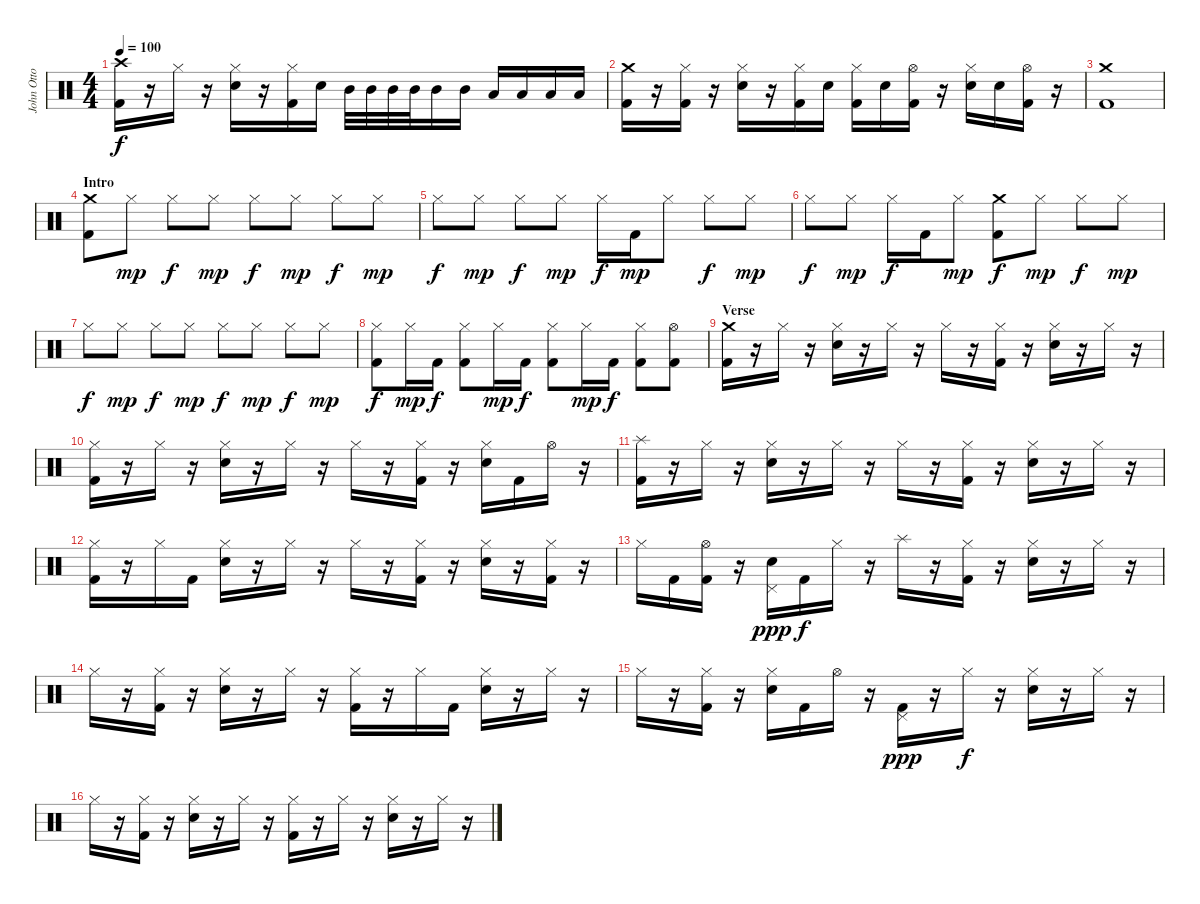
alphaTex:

\track ("John Otto - Drums" "John Otto ") {instrument percussion}
\staff {score}
\articulation defaults
\ts (4 4)
\tempo 100
\clef neutral
\ks c
("Crash high (hit)" "Kick (hit) 2").16{dy f} r.16 "Hi-Hat (closed)".16 r.16 ("Hi-Hat (closed)" "Electric Snare (hit)").16 r.16 ("Hi-Hat (closed)" "Kick (hit) 2").16 "Electric Snare (hit)".16 "Mid Tom (hit)".32 "Mid Tom (hit)".32 "Mid Tom (hit)".32 "Mid Tom (hit)".32 "Mid Tom (hit)".16 "Mid Tom (hit)".16 "Low Tom (hit)".16 "Low Tom (hit)".16 "Low Tom (hit)".16 "Low Tom (hit)".16 |
("Crash medium (hit)" "Kick (hit) 2").16 r.16 ("Hi-Hat (closed)" "Kick (hit) 2").16 r.16 ("Hi-Hat (closed)" "Electric Snare (hit)").16 r.16 ("Hi-Hat (closed)" "Kick (hit) 2").16 "Electric Snare (hit)".16 ("Hi-Hat (closed)" "Kick (hit) 2").16 "Electric Snare (hit)".16 ("Hi-Hat (open)" "Kick (hit) 2").16 r.16 ("Hi-Hat (closed)" "Electric Snare (hit)").16 "Electric Snare (hit)".16 ("Hi-Hat (open)" "Kick (hit) 2").16 r.16 |
("Crash medium (hit)" "Kick (hit) 2").1 |
\section ("" "Intro")
("Crash medium (hit)" "Kick (hit) 2").8 "Hi-Hat (closed)".8{dy mp} "Hi-Hat (closed)".8{dy f} "Hi-Hat (closed)".8{dy mp} "Hi-Hat (closed)".8{dy f} "Hi-Hat (closed)".8{dy mp} "Hi-Hat (closed)".8{dy f} "Hi-Hat (closed)".8{dy mp} |
"Hi-Hat (closed)".8{dy f} "Hi-Hat (closed)".8{dy mp} "Hi-Hat (closed)".8{dy f} "Hi-Hat (closed)".8{dy mp} "Hi-Hat (closed)".16{dy f} "Kick (hit) 2".16{dy mp} "Hi-Hat (closed)".8 "Hi-Hat (closed)".8{dy f} "Hi-Hat (closed)".8{dy mp} |
"Hi-Hat (closed)".8{dy f} "Hi-Hat (closed)".8{dy mp} "Hi-Hat (closed)".16{dy f} "Kick (hit) 2".16 "Hi-Hat (closed)".8{dy mp} ("Crash medium (hit)" "Kick (hit) 2").8{dy f} "Hi-Hat (closed)".8{dy mp} "Hi-Hat (closed)".8{dy f} "Hi-Hat (closed)".8{dy mp} |
"Hi-Hat (closed)".8{dy f} "Hi-Hat (closed)".8{dy mp} "Hi-Hat (closed)".8{dy f} "Hi-Hat (closed)".8{dy mp} "Hi-Hat (closed)".8{dy f} "Hi-Hat (closed)".8{dy mp} "Hi-Hat (closed)".8{dy f} "Hi-Hat (closed)".8{dy mp} |
("Hi-Hat (closed)" "Kick (hit) 2").8{dy f} "Hi-Hat (closed)".16{dy mp} "Kick (hit) 2".16{dy f} ("Hi-Hat (closed)" "Kick (hit) 2").8 "Hi-Hat (closed)".16{dy mp} "Kick (hit) 2".16{dy f} ("Hi-Hat (closed)" "Kick (hit) 2").8 "Hi-Hat (closed)".16{dy mp} "Kick (hit) 2".16{dy f} ("Hi-Hat (closed)" "Kick (hit) 2").8 ("Hi-Hat (open)" "Kick (hit) 2").8 |
\section ("" "Verse")
("Crash medium (hit)" "Kick (hit) 2").16 r.16 "Hi-Hat (closed)".16 r.16 ("Hi-Hat (closed)" "Electric Snare (hit)").16 r.16 "Hi-Hat (closed)".16 r.16 "Hi-Hat (closed)".16 r.16 ("Hi-Hat (closed)" "Kick (hit) 2").16 r.16 ("Hi-Hat (closed)" "Electric Snare (hit)").16 r.16 "Hi-Hat (closed)".16 r.16 |
("Hi-Hat (closed)" "Kick (hit) 2").16 r.16 "Hi-Hat (closed)".16 r.16 ("Hi-Hat (closed)" "Electric Snare (hit)").16 r.16 "Hi-Hat (closed)".16 r.16 "Hi-Hat (closed)".16 r.16 ("Hi-Hat (closed)" "Kick (hit) 2").16 r.16 ("Hi-Hat (closed)" "Electric Snare (hit)").16 "Kick (hit) 2".16 "Hi-Hat (open)".16 r.16 |
("Splash (hit)" "Kick (hit) 2").16 r.16 "Hi-Hat (closed)".16 r.16 ("Hi-Hat (closed)" "Electric Snare (hit)").16 r.16 "Hi-Hat (closed)".16 r.16 "Hi-Hat (closed)".16 r.16 ("Hi-Hat (closed)" "Kick (hit) 2").16 r.16 ("Hi-Hat (closed)" "Electric Snare (hit)").16 r.16 "Hi-Hat (closed)".16 r.16 |
("Hi-Hat (closed)" "Kick (hit) 2").16 r.16 "Hi-Hat (closed)".16 "Kick (hit) 2".16 ("Hi-Hat (closed)" "Electric Snare (hit)").16 r.16 "Hi-Hat (closed)".16 r.16 "Hi-Hat (closed)".16 r.16 ("Hi-Hat (closed)" "Kick (hit) 2").16 r.16 ("Hi-Hat (closed)" "Electric Snare (hit)").16 r.16 ("Hi-Hat (closed)" "Kick (hit) 2").16 r.16 |
"Hi-Hat (closed)".16 "Kick (hit) 2".16 ("Hi-Hat (open)" "Kick (hit) 2").16 r.16 ("Pedal Hi-Hat (hit)" "Electric Snare (hit)").16{dy ppp} "Kick (hit) 2".16{dy f} "Hi-Hat (closed)".16 r.16 "Splash (hit)".16 r.16 ("Hi-Hat (closed)" "Kick (hit) 2").16 r.16 ("Hi-Hat (closed)" "Electric Snare (hit)").16 r.16 "Hi-Hat (closed)".16 r.16 |
"Hi-Hat (closed)".16 r.16 ("Hi-Hat (closed)" "Kick (hit) 2").16 r.16 ("Hi-Hat (closed)" "Electric Snare (hit)").16 r.16 "Hi-Hat (closed)".16 r.16 ("Hi-Hat (closed)" "Kick (hit) 2").16 r.16 "Hi-Hat (closed)".16 "Kick (hit) 2".16 ("Hi-Hat (closed)" "Electric Snare (hit)").16 r.16 "Hi-Hat (closed)".16 r.16 |
"Hi-Hat (closed)".16 r.16 ("Hi-Hat (closed)" "Kick (hit) 2").16 r.16 ("Hi-Hat (closed)" "Electric Snare (hit)").16 "Kick (hit) 2".16 "Hi-Hat (open)".16 r.16 ("Pedal Hi-Hat (hit)" "Kick (hit) 2").16{dy ppp} r.16 "Hi-Hat (closed)".16{dy f} r.16 ("Hi-Hat (closed)" "Electric Snare (hit)").16 r.16 "Hi-Hat (closed)".16 r.16 |
"Hi-Hat (closed)".16 r.16 ("Hi-Hat (closed)" "Kick (hit) 2").16 r.16 ("Hi-Hat (closed)" "Electric Snare (hit)").16 r.16 "Hi-Hat (closed)".16 r.16 ("Hi-Hat (closed)" "Kick (hit) 2").16 r.16 "Hi-Hat (closed)".16 r.16 ("Hi-Hat (closed)" "Electric Snare (hit)").16 r.16 "Hi-Hat (closed)".16 r.16
